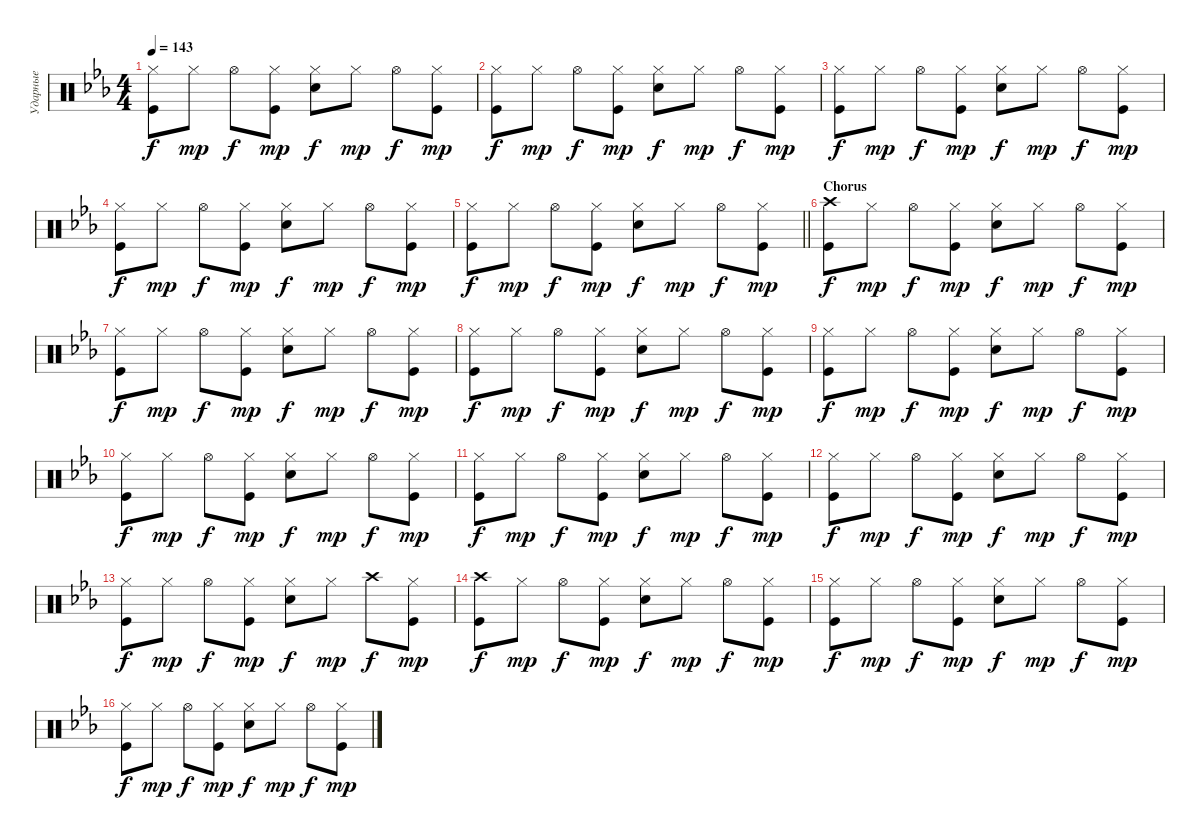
\track ("Ударные" "Ударные") {instrument percussion}
\staff {score}
\articulation defaults
\ts (4 4)
\tempo 143
\clef neutral
\ks cminor
("Kick (hit)" "Hi-Hat (closed)").8{dy f} "Hi-Hat (closed)".8{dy mp} "Hi-Hat (open)".8{dy f} ("Kick (hit)" "Hi-Hat (closed)").8{dy mp} ("Snare (hit) 2" "Hi-Hat (closed)").8{dy f} "Hi-Hat (closed)".8{dy mp} "Hi-Hat (open)".8{dy f} ("Kick (hit)" "Hi-Hat (closed)").8{dy mp} |
("Kick (hit)" "Hi-Hat (closed)").8{dy f} "Hi-Hat (closed)".8{dy mp} "Hi-Hat (open)".8{dy f} ("Kick (hit)" "Hi-Hat (closed)").8{dy mp} ("Snare (hit) 2" "Hi-Hat (closed)").8{dy f} "Hi-Hat (closed)".8{dy mp} "Hi-Hat (open)".8{dy f} ("Kick (hit)" "Hi-Hat (closed)").8{dy mp} |
("Kick (hit)" "Hi-Hat (closed)").8{dy f} "Hi-Hat (closed)".8{dy mp} "Hi-Hat (open)".8{dy f} ("Kick (hit)" "Hi-Hat (closed)").8{dy mp} ("Snare (hit) 2" "Hi-Hat (closed)").8{dy f} "Hi-Hat (closed)".8{dy mp} "Hi-Hat (open)".8{dy f} ("Kick (hit)" "Hi-Hat (closed)").8{dy mp} |
("Kick (hit)" "Hi-Hat (closed)").8{dy f} "Hi-Hat (closed)".8{dy mp} "Hi-Hat (open)".8{dy f} ("Kick (hit)" "Hi-Hat (closed)").8{dy mp} ("Snare (hit) 2" "Hi-Hat (closed)").8{dy f} "Hi-Hat (closed)".8{dy mp} "Hi-Hat (open)".8{dy f} ("Kick (hit)" "Hi-Hat (closed)").8{dy mp} |
\barLineRight lightlight
("Kick (hit)" "Hi-Hat (closed)").8{dy f} "Hi-Hat (closed)".8{dy mp} "Hi-Hat (open)".8{dy f} ("Kick (hit)" "Hi-Hat (closed)").8{dy mp} ("Snare (hit) 2" "Hi-Hat (closed)").8{dy f} "Hi-Hat (closed)".8{dy mp} "Hi-Hat (open)".8{dy f} ("Kick (hit)" "Hi-Hat (closed)").8{dy mp} |
\section ("" "Chorus")
("Kick (hit)" "Crash high (hit)").8{dy f} "Hi-Hat (closed)".8{dy mp} "Hi-Hat (open)".8{dy f} ("Kick (hit)" "Hi-Hat (closed)").8{dy mp} ("Snare (hit) 2" "Hi-Hat (closed)").8{dy f} "Hi-Hat (closed)".8{dy mp} "Hi-Hat (open)".8{dy f} ("Kick (hit)" "Hi-Hat (closed)").8{dy mp} |
("Kick (hit)" "Hi-Hat (closed)").8{dy f} "Hi-Hat (closed)".8{dy mp} "Hi-Hat (open)".8{dy f} ("Kick (hit)" "Hi-Hat (closed)").8{dy mp} ("Snare (hit) 2" "Hi-Hat (closed)").8{dy f} "Hi-Hat (closed)".8{dy mp} "Hi-Hat (open)".8{dy f} ("Kick (hit)" "Hi-Hat (closed)").8{dy mp} |
("Kick (hit)" "Hi-Hat (closed)").8{dy f} "Hi-Hat (closed)".8{dy mp} "Hi-Hat (open)".8{dy f} ("Kick (hit)" "Hi-Hat (closed)").8{dy mp} ("Snare (hit) 2" "Hi-Hat (closed)").8{dy f} "Hi-Hat (closed)".8{dy mp} "Hi-Hat (open)".8{dy f} ("Kick (hit)" "Hi-Hat (closed)").8{dy mp} |
("Kick (hit)" "Hi-Hat (closed)").8{dy f} "Hi-Hat (closed)".8{dy mp} "Hi-Hat (open)".8{dy f} ("Kick (hit)" "Hi-Hat (closed)").8{dy mp} ("Snare (hit) 2" "Hi-Hat (closed)").8{dy f} "Hi-Hat (closed)".8{dy mp} "Hi-Hat (open)".8{dy f} ("Kick (hit)" "Hi-Hat (closed)").8{dy mp} |
("Kick (hit)" "Hi-Hat (closed)").8{dy f} "Hi-Hat (closed)".8{dy mp} "Hi-Hat (open)".8{dy f} ("Kick (hit)" "Hi-Hat (closed)").8{dy mp} ("Snare (hit) 2" "Hi-Hat (closed)").8{dy f} "Hi-Hat (closed)".8{dy mp} "Hi-Hat (open)".8{dy f} ("Kick (hit)" "Hi-Hat (closed)").8{dy mp} |
("Kick (hit)" "Hi-Hat (closed)").8{dy f} "Hi-Hat (closed)".8{dy mp} "Hi-Hat (open)".8{dy f} ("Kick (hit)" "Hi-Hat (closed)").8{dy mp} ("Snare (hit) 2" "Hi-Hat (closed)").8{dy f} "Hi-Hat (closed)".8{dy mp} "Hi-Hat (open)".8{dy f} ("Kick (hit)" "Hi-Hat (closed)").8{dy mp} |
("Kick (hit)" "Hi-Hat (closed)").8{dy f} "Hi-Hat (closed)".8{dy mp} "Hi-Hat (open)".8{dy f} ("Kick (hit)" "Hi-Hat (closed)").8{dy mp} ("Snare (hit) 2" "Hi-Hat (closed)").8{dy f} "Hi-Hat (closed)".8{dy mp} "Hi-Hat (open)".8{dy f} ("Kick (hit)" "Hi-Hat (closed)").8{dy mp} |
("Kick (hit)" "Hi-Hat (closed)").8{dy f} "Hi-Hat (closed)".8{dy mp} "Hi-Hat (open)".8{dy f} ("Kick (hit)" "Hi-Hat (closed)").8{dy mp} ("Snare (hit) 2" "Hi-Hat (closed)").8{dy f} "Hi-Hat (closed)".8{dy mp} "Crash high (hit)".8{dy f} ("Kick (hit)" "Hi-Hat (closed)").8{dy mp} |
("Kick (hit)" "Crash high (hit)").8{dy f} "Hi-Hat (closed)".8{dy mp} "Hi-Hat (open)".8{dy f} ("Kick (hit)" "Hi-Hat (closed)").8{dy mp} ("Snare (hit) 2" "Hi-Hat (closed)").8{dy f} "Hi-Hat (closed)".8{dy mp} "Hi-Hat (open)".8{dy f} ("Kick (hit)" "Hi-Hat (closed)").8{dy mp} |
("Kick (hit)" "Hi-Hat (closed)").8{dy f} "Hi-Hat (closed)".8{dy mp} "Hi-Hat (open)".8{dy f} ("Kick (hit)" "Hi-Hat (closed)").8{dy mp} ("Snare (hit) 2" "Hi-Hat (closed)").8{dy f} "Hi-Hat (closed)".8{dy mp} "Hi-Hat (open)".8{dy f} ("Kick (hit)" "Hi-Hat (closed)").8{dy mp} |
("Kick (hit)" "Hi-Hat (closed)").8{dy f} "Hi-Hat (closed)".8{dy mp} "Hi-Hat (open)".8{dy f} ("Kick (hit)" "Hi-Hat (closed)").8{dy mp} ("Snare (hit) 2" "Hi-Hat (closed)").8{dy f} "Hi-Hat (closed)".8{dy mp} "Hi-Hat (open)".8{dy f} ("Kick (hit)" "Hi-Hat (closed)").8{dy mp}
